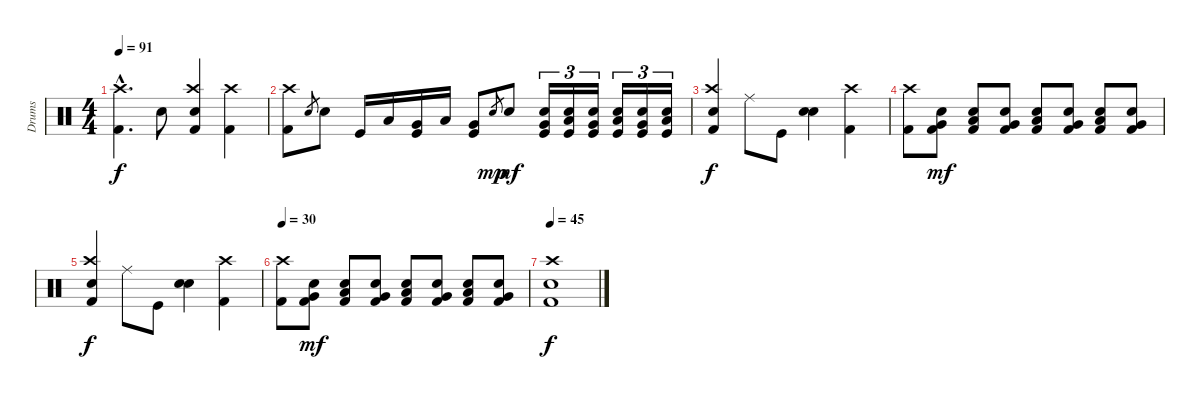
\track ("Drums" "Drums") {instrument percussion}
\staff {score}
\articulation defaults
\ts (4 4)
\tempo 91
\clef neutral
\ks c
("Kick (hit) 2"{hac} "Crash high (hit)"{hac}).4{d dy f} "Electric Snare (hit)".8 ("Snare (hit) 2" "Kick (hit) 2" "Crash high (hit)").4 ("Kick (hit) 2" "Crash high (hit)").4 |
("Kick (hit) 2" "Crash high (hit)").8 "Snare (hit) 2".8{gr} "Snare (hit) 2".8 "Kick (hit)".16 "Low Floor Tom (hit)".16 ("Very Low Tom (hit)" "Kick (hit)").16 "Low Floor Tom (hit)".16 ("Very Low Tom (hit)" "Kick (hit)").8 "Snare (hit) 2".8{gr dy mp} "Snare (hit) 2".8{dy mf} ("Electric Snare (hit)" "Kick (hit)" "Very Low Tom (hit)").16{tu (3 2)} ("Electric Snare (hit)" "Kick (hit)" "Low Floor Tom (hit)").16{tu (3 2)} ("Electric Snare (hit)" "Kick (hit)" "Very Low Tom (hit)").16{tu (3 2)} ("Electric Snare (hit)" "Kick (hit)" "Low Floor Tom (hit)").16{tu (3 2)} ("Electric Snare (hit)" "Kick (hit)" "Very Low Tom (hit)").16{tu (3 2)} ("Electric Snare (hit)" "Kick (hit)" "Low Floor Tom (hit)").16{tu (3 2)} |
("Snare (hit) 2" "Kick (hit) 2" "Crash high (hit)").4{dy f} "Ride (middle)".8 "Kick (hit)".8 ("Snare (hit) 2" "Electric Snare (hit)").4 ("Kick (hit) 2" "Crash high (hit)").4 |
("Kick (hit) 2" "Crash high (hit)").8 ("Very Low Tom (hit)" "Electric Snare (hit)" "Kick (hit) 2").8{dy mf} ("Low Floor Tom (hit)" "Electric Snare (hit)" "Kick (hit) 2").8 ("Very Low Tom (hit)" "Electric Snare (hit)" "Kick (hit) 2").8 ("Low Floor Tom (hit)" "Electric Snare (hit)" "Kick (hit) 2").8 ("Very Low Tom (hit)" "Electric Snare (hit)" "Kick (hit) 2").8 ("Low Floor Tom (hit)" "Electric Snare (hit)" "Kick (hit) 2").8 ("Very Low Tom (hit)" "Electric Snare (hit)" "Kick (hit) 2").8 |
("Snare (hit) 2" "Kick (hit) 2" "Crash high (hit)").4{dy f} "Ride (middle)".8 "Kick (hit)".8 ("Snare (hit) 2" "Electric Snare (hit)").4 ("Kick (hit) 2" "Crash high (hit)").4 |
\tempo 30
("Kick (hit) 2" "Crash high (hit)").8 ("Very Low Tom (hit)" "Electric Snare (hit)" "Kick (hit) 2").8{dy mf} ("Low Floor Tom (hit)" "Electric Snare (hit)" "Kick (hit) 2").8 ("Very Low Tom (hit)" "Electric Snare (hit)" "Kick (hit) 2").8 ("Low Floor Tom (hit)" "Electric Snare (hit)" "Kick (hit) 2").8 ("Very Low Tom (hit)" "Electric Snare (hit)" "Kick (hit) 2").8 ("Low Floor Tom (hit)" "Electric Snare (hit)" "Kick (hit) 2").8 ("Very Low Tom (hit)" "Electric Snare (hit)" "Kick (hit) 2").8 |
\tempo 45
("Snare (hit) 2" "Kick (hit) 2" "Crash high (hit)").1{dy f}
